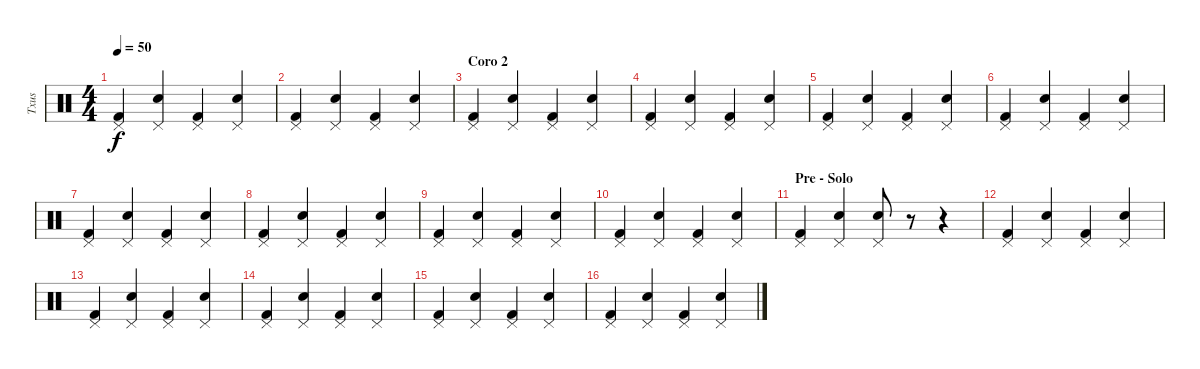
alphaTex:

\track ("Txus" "Txus") {instrument percussion}
\staff {score}
\articulation defaults
\ts (4 4)
\tempo 50
\clef neutral
\ks c
("Pedal Hi-Hat (hit)" "Kick (hit) 2").4{dy f} ("Pedal Hi-Hat (hit)" "Snare (hit) 2").4 ("Pedal Hi-Hat (hit)" "Kick (hit) 2").4 ("Pedal Hi-Hat (hit)" "Snare (hit) 2").4 |
("Pedal Hi-Hat (hit)" "Kick (hit) 2").4 ("Pedal Hi-Hat (hit)" "Snare (hit) 2").4 ("Pedal Hi-Hat (hit)" "Kick (hit) 2").4 ("Pedal Hi-Hat (hit)" "Snare (hit) 2").4 |
\section ("" "Coro 2")
("Pedal Hi-Hat (hit)" "Kick (hit) 2").4 ("Pedal Hi-Hat (hit)" "Snare (hit) 2").4 ("Pedal Hi-Hat (hit)" "Kick (hit) 2").4 ("Pedal Hi-Hat (hit)" "Snare (hit) 2").4 |
("Pedal Hi-Hat (hit)" "Kick (hit) 2").4 ("Pedal Hi-Hat (hit)" "Snare (hit) 2").4 ("Pedal Hi-Hat (hit)" "Kick (hit) 2").4 ("Pedal Hi-Hat (hit)" "Snare (hit) 2").4 |
("Pedal Hi-Hat (hit)" "Kick (hit) 2").4 ("Pedal Hi-Hat (hit)" "Snare (hit) 2").4 ("Pedal Hi-Hat (hit)" "Kick (hit) 2").4 ("Pedal Hi-Hat (hit)" "Snare (hit) 2").4 |
("Pedal Hi-Hat (hit)" "Kick (hit) 2").4 ("Pedal Hi-Hat (hit)" "Snare (hit) 2").4 ("Pedal Hi-Hat (hit)" "Kick (hit) 2").4 ("Pedal Hi-Hat (hit)" "Snare (hit) 2").4 |
("Pedal Hi-Hat (hit)" "Kick (hit) 2").4 ("Pedal Hi-Hat (hit)" "Snare (hit) 2").4 ("Pedal Hi-Hat (hit)" "Kick (hit) 2").4 ("Pedal Hi-Hat (hit)" "Snare (hit) 2").4 |
("Pedal Hi-Hat (hit)" "Kick (hit) 2").4 ("Pedal Hi-Hat (hit)" "Snare (hit) 2").4 ("Pedal Hi-Hat (hit)" "Kick (hit) 2").4 ("Pedal Hi-Hat (hit)" "Snare (hit) 2").4 |
("Pedal Hi-Hat (hit)" "Kick (hit) 2").4 ("Pedal Hi-Hat (hit)" "Snare (hit) 2").4 ("Pedal Hi-Hat (hit)" "Kick (hit) 2").4 ("Pedal Hi-Hat (hit)" "Snare (hit) 2").4 |
("Pedal Hi-Hat (hit)" "Kick (hit) 2").4 ("Pedal Hi-Hat (hit)" "Snare (hit) 2").4 ("Pedal Hi-Hat (hit)" "Kick (hit) 2").4 ("Pedal Hi-Hat (hit)" "Snare (hit) 2").4 |
\section ("" "Pre - Solo")
("Pedal Hi-Hat (hit)" "Kick (hit) 2").4 ("Pedal Hi-Hat (hit)" "Snare (hit) 2").4 ("Pedal Hi-Hat (hit)" "Snare (hit) 2").8 r.8 r.4 |
("Pedal Hi-Hat (hit)" "Kick (hit) 2").4 ("Pedal Hi-Hat (hit)" "Snare (hit) 2").4 ("Pedal Hi-Hat (hit)" "Kick (hit) 2").4 ("Pedal Hi-Hat (hit)" "Snare (hit) 2").4 |
("Pedal Hi-Hat (hit)" "Kick (hit) 2").4 ("Pedal Hi-Hat (hit)" "Snare (hit) 2").4 ("Pedal Hi-Hat (hit)" "Kick (hit) 2").4 ("Pedal Hi-Hat (hit)" "Snare (hit) 2").4 |
("Pedal Hi-Hat (hit)" "Kick (hit) 2").4 ("Pedal Hi-Hat (hit)" "Snare (hit) 2").4 ("Pedal Hi-Hat (hit)" "Kick (hit) 2").4 ("Pedal Hi-Hat (hit)" "Snare (hit) 2").4 |
("Pedal Hi-Hat (hit)" "Kick (hit) 2").4 ("Pedal Hi-Hat (hit)" "Snare (hit) 2").4 ("Pedal Hi-Hat (hit)" "Kick (hit) 2").4 ("Pedal Hi-Hat (hit)" "Snare (hit) 2").4 |
("Pedal Hi-Hat (hit)" "Kick (hit) 2").4 ("Pedal Hi-Hat (hit)" "Snare (hit) 2").4 ("Pedal Hi-Hat (hit)" "Kick (hit) 2").4 ("Pedal Hi-Hat (hit)" "Snare (hit) 2").4
